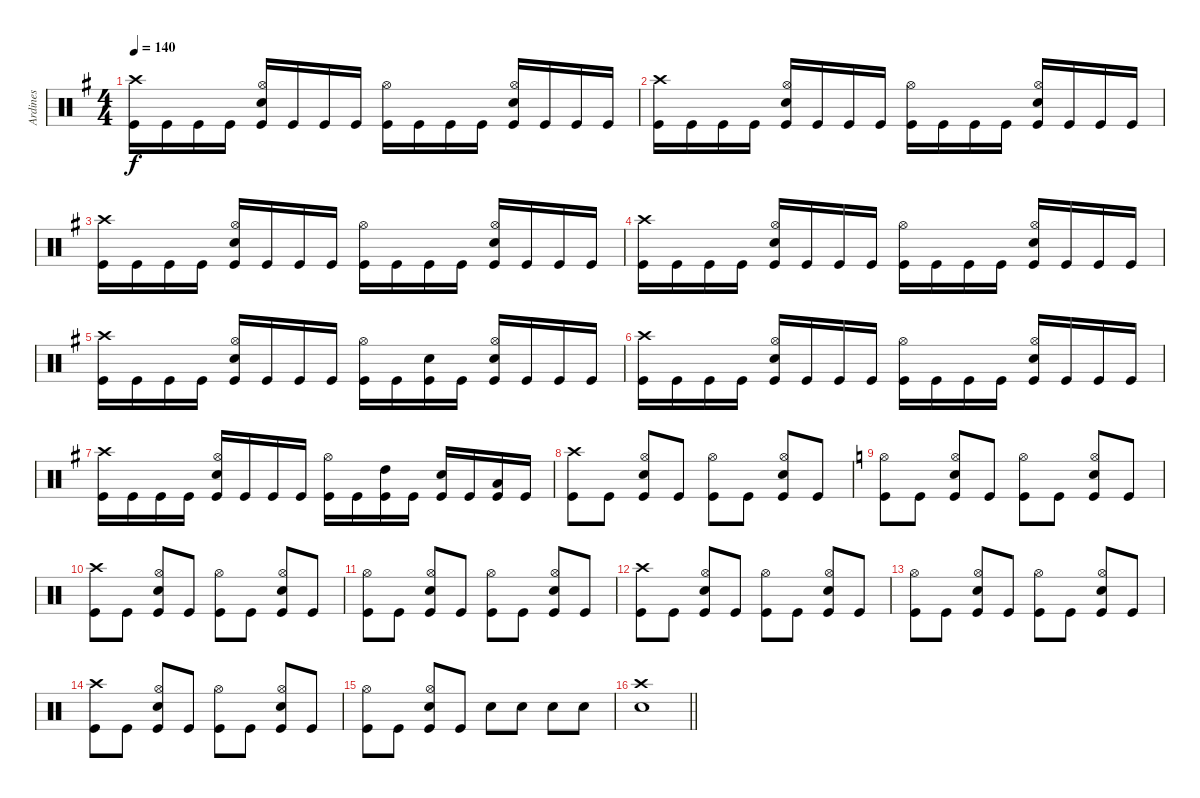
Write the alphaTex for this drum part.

\track ("Ardines" "Ardines") {instrument percussion}
\staff {score}
\articulation defaults
\ts (4 4)
\tempo 140
\clef neutral
\ks g
("Crash high (hit)" "Kick (hit)").16{dy f} "Kick (hit)".16 "Kick (hit)".16 "Kick (hit)".16 ("Hi-Hat (open)" "Electric Snare (hit)" "Kick (hit)").16 "Kick (hit)".16 "Kick (hit)".16 "Kick (hit)".16 ("Hi-Hat (open)" "Kick (hit)").16 "Kick (hit)".16 "Kick (hit)".16 "Kick (hit)".16 ("Hi-Hat (open)" "Electric Snare (hit)" "Kick (hit)").16 "Kick (hit)".16 "Kick (hit)".16 "Kick (hit)".16 |
("Crash high (hit)" "Kick (hit)").16 "Kick (hit)".16 "Kick (hit)".16 "Kick (hit)".16 ("Hi-Hat (open)" "Electric Snare (hit)" "Kick (hit)").16 "Kick (hit)".16 "Kick (hit)".16 "Kick (hit)".16 ("Hi-Hat (open)" "Kick (hit)").16 "Kick (hit)".16 "Kick (hit)".16 "Kick (hit)".16 ("Hi-Hat (open)" "Electric Snare (hit)" "Kick (hit)").16 "Kick (hit)".16 "Kick (hit)".16 "Kick (hit)".16 |
("Crash high (hit)" "Kick (hit)").16 "Kick (hit)".16 "Kick (hit)".16 "Kick (hit)".16 ("Hi-Hat (open)" "Electric Snare (hit)" "Kick (hit)").16 "Kick (hit)".16 "Kick (hit)".16 "Kick (hit)".16 ("Hi-Hat (open)" "Kick (hit)").16 "Kick (hit)".16 "Kick (hit)".16 "Kick (hit)".16 ("Hi-Hat (open)" "Electric Snare (hit)" "Kick (hit)").16 "Kick (hit)".16 "Kick (hit)".16 "Kick (hit)".16 |
("Crash high (hit)" "Kick (hit)").16 "Kick (hit)".16 "Kick (hit)".16 "Kick (hit)".16 ("Hi-Hat (open)" "Electric Snare (hit)" "Kick (hit)").16 "Kick (hit)".16 "Kick (hit)".16 "Kick (hit)".16 ("Hi-Hat (open)" "Kick (hit)").16 "Kick (hit)".16 "Kick (hit)".16 "Kick (hit)".16 ("Hi-Hat (open)" "Electric Snare (hit)" "Kick (hit)").16 "Kick (hit)".16 "Kick (hit)".16 "Kick (hit)".16 |
("Crash high (hit)" "Kick (hit)").16 "Kick (hit)".16 "Kick (hit)".16 "Kick (hit)".16 ("Hi-Hat (open)" "Electric Snare (hit)" "Kick (hit)").16 "Kick (hit)".16 "Kick (hit)".16 "Kick (hit)".16 ("Hi-Hat (open)" "Kick (hit)").16 "Kick (hit)".16 ("Electric Snare (hit)" "Kick (hit)").16 "Kick (hit)".16 ("Hi-Hat (open)" "Electric Snare (hit)" "Kick (hit)").16 "Kick (hit)".16 "Kick (hit)".16 "Kick (hit)".16 |
("Crash high (hit)" "Kick (hit)").16 "Kick (hit)".16 "Kick (hit)".16 "Kick (hit)".16 ("Hi-Hat (open)" "Electric Snare (hit)" "Kick (hit)").16 "Kick (hit)".16 "Kick (hit)".16 "Kick (hit)".16 ("Hi-Hat (open)" "Kick (hit)").16 "Kick (hit)".16 "Kick (hit)".16 "Kick (hit)".16 ("Hi-Hat (open)" "Electric Snare (hit)" "Kick (hit)").16 "Kick (hit)".16 "Kick (hit)".16 "Kick (hit)".16 |
("Crash high (hit)" "Kick (hit)").16 "Kick (hit)".16 "Kick (hit)".16 "Kick (hit)".16 ("Hi-Hat (open)" "Electric Snare (hit)" "Kick (hit)").16 "Kick (hit)".16 "Kick (hit)".16 "Kick (hit)".16 ("Hi-Hat (open)" "Kick (hit)").16 "Kick (hit)".16 ("High Tom (hit)" "Kick (hit)").16 "Kick (hit)".16 ("Electric Snare (hit)" "Kick (hit)").16 "Kick (hit)".16 ("Low Tom (hit)" "Kick (hit)").16 "Kick (hit)".16 |
("Crash high (hit)" "Kick (hit)").8 "Kick (hit)".8 ("Hi-Hat (open)" "Electric Snare (hit)" "Kick (hit)").8 "Kick (hit)".8 ("Hi-Hat (open)" "Kick (hit)").8 "Kick (hit)".8 ("Hi-Hat (open)" "Electric Snare (hit)" "Kick (hit)").8 "Kick (hit)".8 |
\ks c
("Hi-Hat (open)" "Kick (hit)").8 "Kick (hit)".8 ("Hi-Hat (open)" "Electric Snare (hit)" "Kick (hit)").8 "Kick (hit)".8 ("Hi-Hat (open)" "Kick (hit)").8 "Kick (hit)".8 ("Hi-Hat (open)" "Electric Snare (hit)" "Kick (hit)").8 "Kick (hit)".8 |
("Crash high (hit)" "Kick (hit)").8 "Kick (hit)".8 ("Hi-Hat (open)" "Electric Snare (hit)" "Kick (hit)").8 "Kick (hit)".8 ("Hi-Hat (open)" "Kick (hit)").8 "Kick (hit)".8 ("Hi-Hat (open)" "Electric Snare (hit)" "Kick (hit)").8 "Kick (hit)".8 |
("Hi-Hat (open)" "Kick (hit)").8 "Kick (hit)".8 ("Hi-Hat (open)" "Electric Snare (hit)" "Kick (hit)").8 "Kick (hit)".8 ("Hi-Hat (open)" "Kick (hit)").8 "Kick (hit)".8 ("Hi-Hat (open)" "Electric Snare (hit)" "Kick (hit)").8 "Kick (hit)".8 |
("Crash high (hit)" "Kick (hit)").8 "Kick (hit)".8 ("Hi-Hat (open)" "Electric Snare (hit)" "Kick (hit)").8 "Kick (hit)".8 ("Hi-Hat (open)" "Kick (hit)").8 "Kick (hit)".8 ("Hi-Hat (open)" "Electric Snare (hit)" "Kick (hit)").8 "Kick (hit)".8 |
("Hi-Hat (open)" "Kick (hit)").8 "Kick (hit)".8 ("Hi-Hat (open)" "Electric Snare (hit)" "Kick (hit)").8 "Kick (hit)".8 ("Hi-Hat (open)" "Kick (hit)").8 "Kick (hit)".8 ("Hi-Hat (open)" "Electric Snare (hit)" "Kick (hit)").8 "Kick (hit)".8 |
("Crash high (hit)" "Kick (hit)").8 "Kick (hit)".8 ("Hi-Hat (open)" "Electric Snare (hit)" "Kick (hit)").8 "Kick (hit)".8 ("Hi-Hat (open)" "Kick (hit)").8 "Kick (hit)".8 ("Hi-Hat (open)" "Electric Snare (hit)" "Kick (hit)").8 "Kick (hit)".8 |
("Hi-Hat (open)" "Kick (hit)").8 "Kick (hit)".8 ("Hi-Hat (open)" "Electric Snare (hit)" "Kick (hit)").8 "Kick (hit)".8 "Electric Snare (hit)".8 "Electric Snare (hit)".8 "Electric Snare (hit)".8 "Electric Snare (hit)".8 |
\barLineRight lightlight
("Crash high (hit)" "Electric Snare (hit)").1
